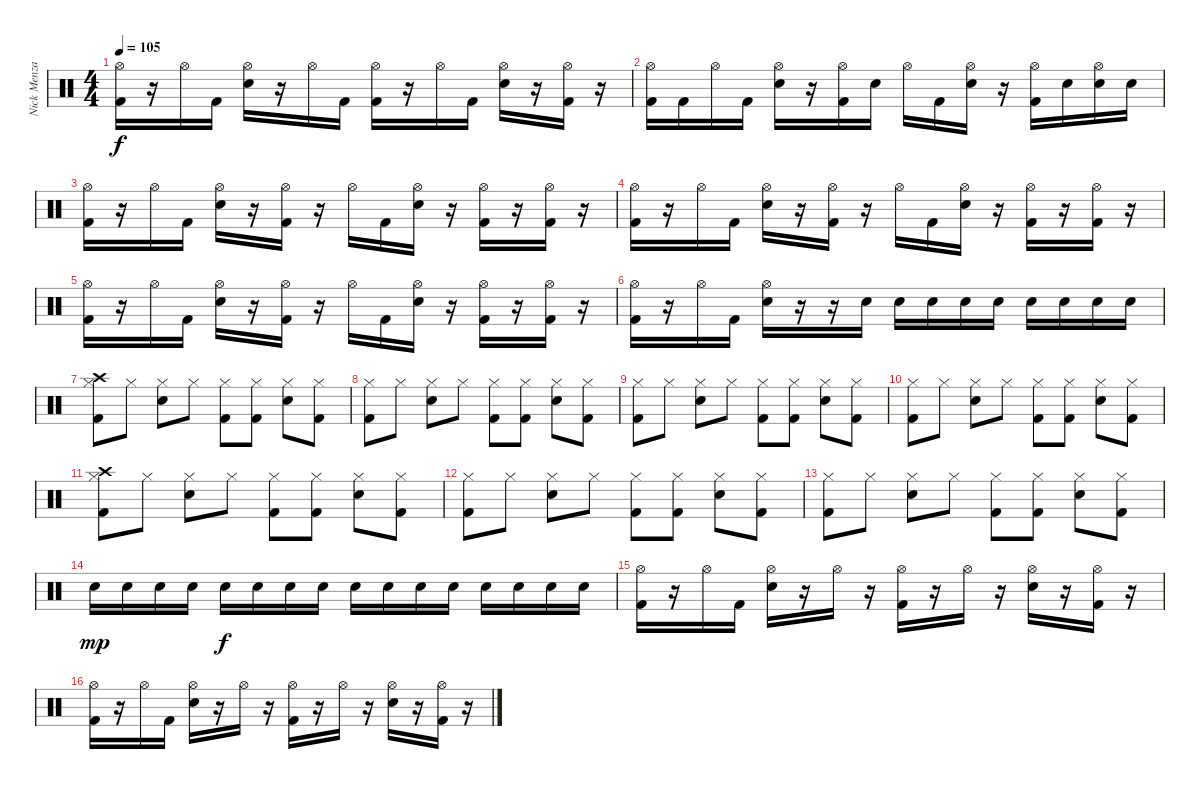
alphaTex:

\track ("Nick Menza" "Nick Menza") {instrument percussion}
\staff {score}
\articulation defaults
\ts (4 4)
\tempo 105
\clef neutral
\ks c
("Hi-Hat (open)" "Kick (hit) 2").16{dy f} r.16 "Hi-Hat (open)".16 "Kick (hit) 2".16 ("Hi-Hat (open)" "Electric Snare (hit)").16 r.16 "Hi-Hat (open)".16 "Kick (hit) 2".16 ("Hi-Hat (open)" "Kick (hit) 2").16 r.16 "Hi-Hat (open)".16 "Kick (hit) 2".16 ("Hi-Hat (open)" "Electric Snare (hit)").16 r.16 ("Hi-Hat (open)" "Kick (hit) 2").16 r.16 |
("Hi-Hat (open)" "Kick (hit) 2").16 "Kick (hit) 2".16 "Hi-Hat (open)".16 "Kick (hit) 2".16 ("Hi-Hat (open)" "Electric Snare (hit)").16 r.16 ("Hi-Hat (open)" "Kick (hit) 2").16 "Electric Snare (hit)".16 "Hi-Hat (open)".16 "Kick (hit) 2".16 ("Hi-Hat (open)" "Electric Snare (hit)").16 r.16 ("Hi-Hat (open)" "Kick (hit) 2").16 "Electric Snare (hit)".16 ("Hi-Hat (open)" "Electric Snare (hit)").16 "Electric Snare (hit)".16 |
("Hi-Hat (open)" "Kick (hit) 2").16 r.16 "Hi-Hat (open)".16 "Kick (hit) 2".16 ("Hi-Hat (open)" "Electric Snare (hit)").16 r.16 ("Hi-Hat (open)" "Kick (hit) 2").16 r.16 "Hi-Hat (open)".16 "Kick (hit) 2".16 ("Hi-Hat (open)" "Electric Snare (hit)").16 r.16 ("Hi-Hat (open)" "Kick (hit) 2").16 r.16 ("Hi-Hat (open)" "Kick (hit) 2").16 r.16 |
("Hi-Hat (open)" "Kick (hit) 2").16 r.16 "Hi-Hat (open)".16 "Kick (hit) 2".16 ("Hi-Hat (open)" "Electric Snare (hit)").16 r.16 ("Hi-Hat (open)" "Kick (hit) 2").16 r.16 "Hi-Hat (open)".16 "Kick (hit) 2".16 ("Hi-Hat (open)" "Electric Snare (hit)").16 r.16 ("Hi-Hat (open)" "Kick (hit) 2").16 r.16 ("Hi-Hat (open)" "Kick (hit) 2").16 r.16 |
("Hi-Hat (open)" "Kick (hit) 2").16 r.16 "Hi-Hat (open)".16 "Kick (hit) 2".16 ("Hi-Hat (open)" "Electric Snare (hit)").16 r.16 ("Hi-Hat (open)" "Kick (hit) 2").16 r.16 "Hi-Hat (open)".16 "Kick (hit) 2".16 ("Hi-Hat (open)" "Electric Snare (hit)").16 r.16 ("Hi-Hat (open)" "Kick (hit) 2").16 r.16 ("Hi-Hat (open)" "Kick (hit) 2").16 r.16 |
("Hi-Hat (open)" "Kick (hit) 2").16 r.16 "Hi-Hat (open)".16 "Kick (hit) 2".16 ("Hi-Hat (open)" "Electric Snare (hit)").16 r.16 r.16 "Electric Snare (hit)".16 "Electric Snare (hit)".16 "Electric Snare (hit)".16 "Electric Snare (hit)".16 "Electric Snare (hit)".16 "Electric Snare (hit)".16 "Electric Snare (hit)".16 "Electric Snare (hit)".16 "Electric Snare (hit)".16 |
("Crash high (hit)" "Hi-Hat (closed)" "Kick (hit) 2").8 "Hi-Hat (closed)".8 ("Hi-Hat (closed)" "Electric Snare (hit)").8 "Hi-Hat (closed)".8 ("Hi-Hat (closed)" "Kick (hit) 2").8 ("Hi-Hat (closed)" "Kick (hit) 2").8 ("Hi-Hat (closed)" "Electric Snare (hit)").8 ("Hi-Hat (closed)" "Kick (hit) 2").8 |
("Hi-Hat (closed)" "Kick (hit) 2").8 "Hi-Hat (closed)".8 ("Hi-Hat (closed)" "Electric Snare (hit)").8 "Hi-Hat (closed)".8 ("Hi-Hat (closed)" "Kick (hit) 2").8 ("Hi-Hat (closed)" "Kick (hit) 2").8 ("Hi-Hat (closed)" "Electric Snare (hit)").8 ("Hi-Hat (closed)" "Kick (hit) 2").8 |
("Hi-Hat (closed)" "Kick (hit) 2").8 "Hi-Hat (closed)".8 ("Hi-Hat (closed)" "Electric Snare (hit)").8 "Hi-Hat (closed)".8 ("Hi-Hat (closed)" "Kick (hit) 2").8 ("Hi-Hat (closed)" "Kick (hit) 2").8 ("Hi-Hat (closed)" "Electric Snare (hit)").8 ("Hi-Hat (closed)" "Kick (hit) 2").8 |
("Hi-Hat (closed)" "Kick (hit) 2").8 "Hi-Hat (closed)".8 ("Hi-Hat (closed)" "Electric Snare (hit)").8 "Hi-Hat (closed)".8 ("Hi-Hat (closed)" "Kick (hit) 2").8 ("Hi-Hat (closed)" "Kick (hit) 2").8 ("Hi-Hat (closed)" "Electric Snare (hit)").8 ("Hi-Hat (closed)" "Kick (hit) 2").8 |
("Crash high (hit)" "Hi-Hat (closed)" "Kick (hit) 2").8 "Hi-Hat (closed)".8 ("Hi-Hat (closed)" "Electric Snare (hit)").8 "Hi-Hat (closed)".8 ("Hi-Hat (closed)" "Kick (hit) 2").8 ("Hi-Hat (closed)" "Kick (hit) 2").8 ("Hi-Hat (closed)" "Electric Snare (hit)").8 ("Hi-Hat (closed)" "Kick (hit) 2").8 |
("Hi-Hat (closed)" "Kick (hit) 2").8 "Hi-Hat (closed)".8 ("Hi-Hat (closed)" "Electric Snare (hit)").8 "Hi-Hat (closed)".8 ("Hi-Hat (closed)" "Kick (hit) 2").8 ("Hi-Hat (closed)" "Kick (hit) 2").8 ("Hi-Hat (closed)" "Electric Snare (hit)").8 ("Hi-Hat (closed)" "Kick (hit) 2").8 |
("Hi-Hat (closed)" "Kick (hit) 2").8 "Hi-Hat (closed)".8 ("Hi-Hat (closed)" "Electric Snare (hit)").8 "Hi-Hat (closed)".8 ("Hi-Hat (closed)" "Kick (hit) 2").8 ("Hi-Hat (closed)" "Kick (hit) 2").8 ("Hi-Hat (closed)" "Electric Snare (hit)").8 ("Hi-Hat (closed)" "Kick (hit) 2").8 |
"Electric Snare (hit)".16{dy mp} "Electric Snare (hit)".16 "Electric Snare (hit)".16 "Electric Snare (hit)".16 "Electric Snare (hit)".16{dy f} "Electric Snare (hit)".16 "Electric Snare (hit)".16 "Electric Snare (hit)".16 "Electric Snare (hit)".16 "Electric Snare (hit)".16 "Electric Snare (hit)".16 "Electric Snare (hit)".16 "Electric Snare (hit)".16 "Electric Snare (hit)".16 "Electric Snare (hit)".16 "Electric Snare (hit)".16 |
("Hi-Hat (open)" "Kick (hit) 2").16 r.16 "Hi-Hat (open)".16 "Kick (hit) 2".16 ("Hi-Hat (open)" "Electric Snare (hit)").16 r.16 "Hi-Hat (open)".16 r.16 ("Hi-Hat (open)" "Kick (hit) 2").16 r.16 "Hi-Hat (open)".16 r.16 ("Hi-Hat (open)" "Electric Snare (hit)").16 r.16 ("Hi-Hat (open)" "Kick (hit) 2").16 r.16 |
("Hi-Hat (open)" "Kick (hit) 2").16 r.16 "Hi-Hat (open)".16 "Kick (hit) 2".16 ("Hi-Hat (open)" "Electric Snare (hit)").16 r.16 "Hi-Hat (open)".16 r.16 ("Hi-Hat (open)" "Kick (hit) 2").16 r.16 "Hi-Hat (open)".16 r.16 ("Hi-Hat (open)" "Electric Snare (hit)").16 r.16 ("Hi-Hat (open)" "Kick (hit) 2").16 r.16
